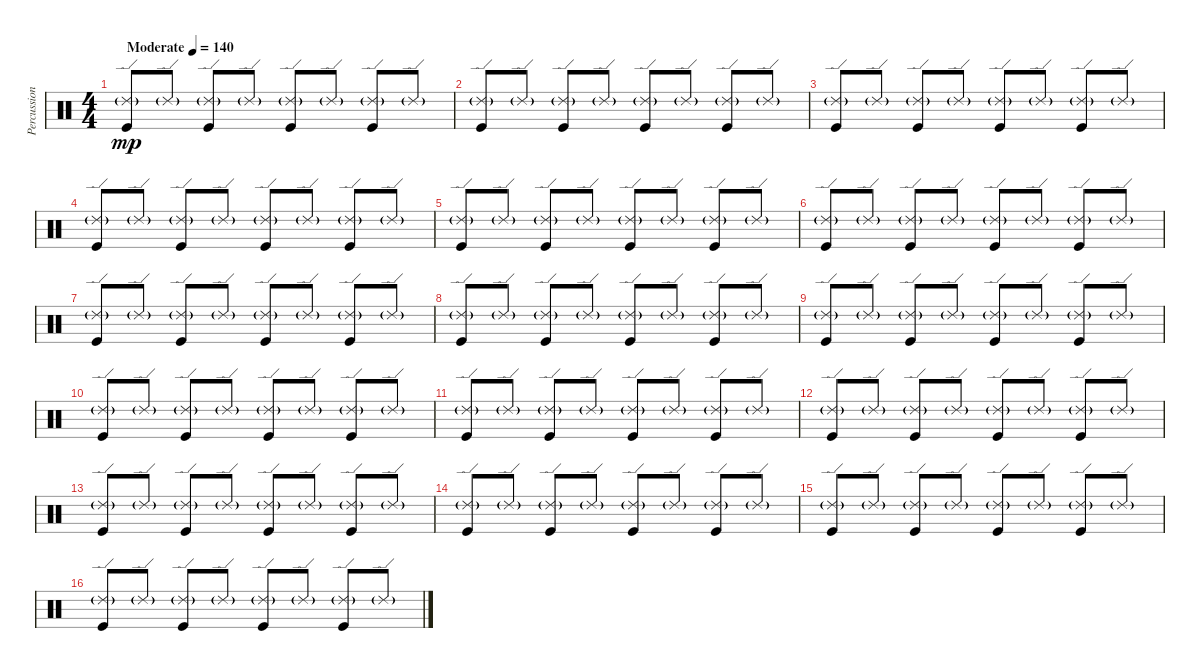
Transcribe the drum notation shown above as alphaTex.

\track ("Percussion" "Percussion") {instrument percussion}
\staff {score}
\articulation defaults
\ts (4 4)
\tempo (140 "Moderate")
\clef neutral
\ks c
("Kick (hit)" "Ride (edge) 2"{g}).8{dy mp} "Ride (edge) 2"{g}.8 ("Kick (hit)" "Ride (edge) 2"{g}).8 "Ride (edge) 2"{g}.8 ("Kick (hit)" "Ride (edge) 2"{g}).8 "Ride (edge) 2"{g}.8 ("Kick (hit)" "Ride (edge) 2"{g}).8 "Ride (edge) 2"{g}.8 |
("Kick (hit)" "Ride (edge) 2"{g}).8 "Ride (edge) 2"{g}.8 ("Kick (hit)" "Ride (edge) 2"{g}).8 "Ride (edge) 2"{g}.8 ("Kick (hit)" "Ride (edge) 2"{g}).8 "Ride (edge) 2"{g}.8 ("Kick (hit)" "Ride (edge) 2"{g}).8 "Ride (edge) 2"{g}.8 |
("Kick (hit)" "Ride (edge) 2"{g}).8 "Ride (edge) 2"{g}.8 ("Kick (hit)" "Ride (edge) 2"{g}).8 "Ride (edge) 2"{g}.8 ("Kick (hit)" "Ride (edge) 2"{g}).8 "Ride (edge) 2"{g}.8 ("Kick (hit)" "Ride (edge) 2"{g}).8 "Ride (edge) 2"{g}.8 |
("Kick (hit)" "Ride (edge) 2"{g}).8 "Ride (edge) 2"{g}.8 ("Kick (hit)" "Ride (edge) 2"{g}).8 "Ride (edge) 2"{g}.8 ("Kick (hit)" "Ride (edge) 2"{g}).8 "Ride (edge) 2"{g}.8 ("Kick (hit)" "Ride (edge) 2"{g}).8 "Ride (edge) 2"{g}.8 |
("Kick (hit)" "Ride (edge) 2"{g}).8 "Ride (edge) 2"{g}.8 ("Kick (hit)" "Ride (edge) 2"{g}).8 "Ride (edge) 2"{g}.8 ("Kick (hit)" "Ride (edge) 2"{g}).8 "Ride (edge) 2"{g}.8 ("Kick (hit)" "Ride (edge) 2"{g}).8 "Ride (edge) 2"{g}.8 |
("Kick (hit)" "Ride (edge) 2"{g}).8 "Ride (edge) 2"{g}.8 ("Kick (hit)" "Ride (edge) 2"{g}).8 "Ride (edge) 2"{g}.8 ("Kick (hit)" "Ride (edge) 2"{g}).8 "Ride (edge) 2"{g}.8 ("Kick (hit)" "Ride (edge) 2"{g}).8 "Ride (edge) 2"{g}.8 |
("Kick (hit)" "Ride (edge) 2"{g}).8 "Ride (edge) 2"{g}.8 ("Kick (hit)" "Ride (edge) 2"{g}).8 "Ride (edge) 2"{g}.8 ("Kick (hit)" "Ride (edge) 2"{g}).8 "Ride (edge) 2"{g}.8 ("Kick (hit)" "Ride (edge) 2"{g}).8 "Ride (edge) 2"{g}.8 |
("Kick (hit)" "Ride (edge) 2"{g}).8 "Ride (edge) 2"{g}.8 ("Kick (hit)" "Ride (edge) 2"{g}).8 "Ride (edge) 2"{g}.8 ("Kick (hit)" "Ride (edge) 2"{g}).8 "Ride (edge) 2"{g}.8 ("Kick (hit)" "Ride (edge) 2"{g}).8 "Ride (edge) 2"{g}.8 |
("Kick (hit)" "Ride (edge) 2"{g}).8 "Ride (edge) 2"{g}.8 ("Kick (hit)" "Ride (edge) 2"{g}).8 "Ride (edge) 2"{g}.8 ("Kick (hit)" "Ride (edge) 2"{g}).8 "Ride (edge) 2"{g}.8 ("Kick (hit)" "Ride (edge) 2"{g}).8 "Ride (edge) 2"{g}.8 |
("Kick (hit)" "Ride (edge) 2"{g}).8 "Ride (edge) 2"{g}.8 ("Kick (hit)" "Ride (edge) 2"{g}).8 "Ride (edge) 2"{g}.8 ("Kick (hit)" "Ride (edge) 2"{g}).8 "Ride (edge) 2"{g}.8 ("Kick (hit)" "Ride (edge) 2"{g}).8 "Ride (edge) 2"{g}.8 |
("Kick (hit)" "Ride (edge) 2"{g}).8 "Ride (edge) 2"{g}.8 ("Kick (hit)" "Ride (edge) 2"{g}).8 "Ride (edge) 2"{g}.8 ("Kick (hit)" "Ride (edge) 2"{g}).8 "Ride (edge) 2"{g}.8 ("Kick (hit)" "Ride (edge) 2"{g}).8 "Ride (edge) 2"{g}.8 |
("Kick (hit)" "Ride (edge) 2"{g}).8 "Ride (edge) 2"{g}.8 ("Kick (hit)" "Ride (edge) 2"{g}).8 "Ride (edge) 2"{g}.8 ("Kick (hit)" "Ride (edge) 2"{g}).8 "Ride (edge) 2"{g}.8 ("Kick (hit)" "Ride (edge) 2"{g}).8 "Ride (edge) 2"{g}.8 |
("Kick (hit)" "Ride (edge) 2"{g}).8 "Ride (edge) 2"{g}.8 ("Kick (hit)" "Ride (edge) 2"{g}).8 "Ride (edge) 2"{g}.8 ("Kick (hit)" "Ride (edge) 2"{g}).8 "Ride (edge) 2"{g}.8 ("Kick (hit)" "Ride (edge) 2"{g}).8 "Ride (edge) 2"{g}.8 |
("Kick (hit)" "Ride (edge) 2"{g}).8 "Ride (edge) 2"{g}.8 ("Kick (hit)" "Ride (edge) 2"{g}).8 "Ride (edge) 2"{g}.8 ("Kick (hit)" "Ride (edge) 2"{g}).8 "Ride (edge) 2"{g}.8 ("Kick (hit)" "Ride (edge) 2"{g}).8 "Ride (edge) 2"{g}.8 |
("Kick (hit)" "Ride (edge) 2"{g}).8 "Ride (edge) 2"{g}.8 ("Kick (hit)" "Ride (edge) 2"{g}).8 "Ride (edge) 2"{g}.8 ("Kick (hit)" "Ride (edge) 2"{g}).8 "Ride (edge) 2"{g}.8 ("Kick (hit)" "Ride (edge) 2"{g}).8 "Ride (edge) 2"{g}.8 |
("Kick (hit)" "Ride (edge) 2"{g}).8 "Ride (edge) 2"{g}.8 ("Kick (hit)" "Ride (edge) 2"{g}).8 "Ride (edge) 2"{g}.8 ("Kick (hit)" "Ride (edge) 2"{g}).8 "Ride (edge) 2"{g}.8 ("Kick (hit)" "Ride (edge) 2"{g}).8 "Ride (edge) 2"{g}.8
